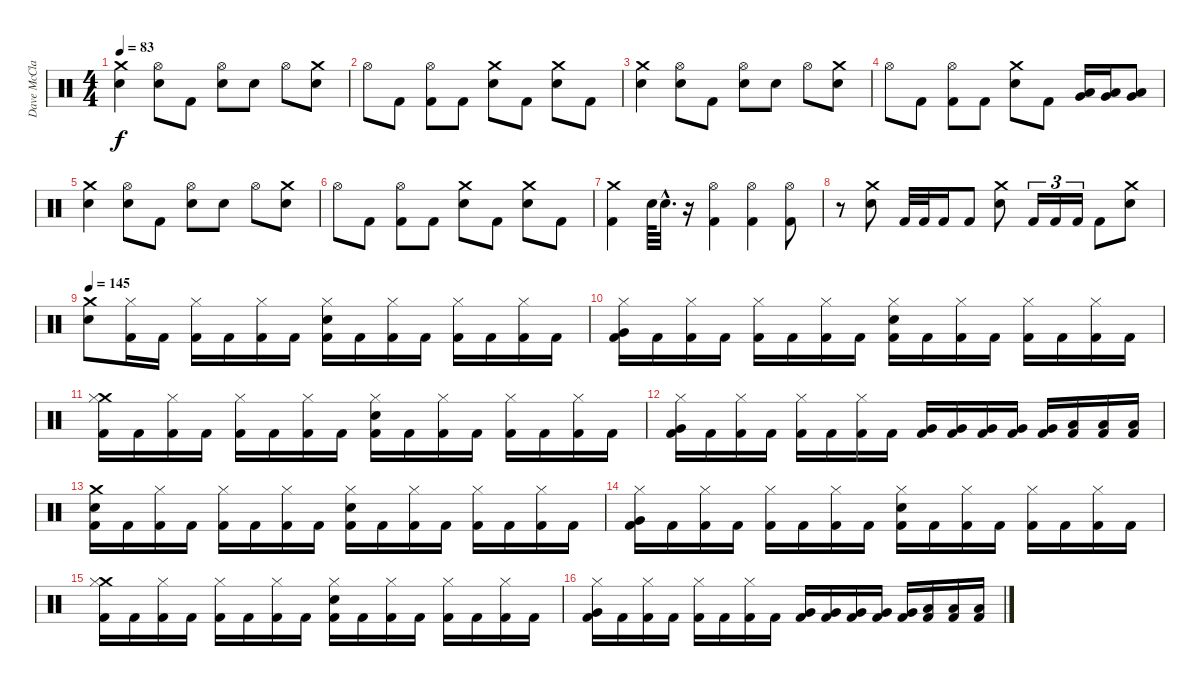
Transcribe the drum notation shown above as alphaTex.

\track ("Dave McClain" "Dave McCla") {instrument percussion}
\staff {score}
\articulation defaults
\ts (4 4)
\tempo 83
\clef neutral
\ks c
("Crash medium (hit)" "Snare (hit) 2").4{dy f} ("Hi-Hat (open)" "Snare (hit) 2").8 "Kick (hit) 2".8 ("Hi-Hat (open)" "Snare (hit) 2").8 "Snare (hit) 2".8 "Hi-Hat (open)".8 ("Crash medium (hit)" "Snare (hit) 2").8 |
"Hi-Hat (open)".8 "Kick (hit) 2".8 ("Hi-Hat (open)" "Kick (hit) 2").8 "Kick (hit) 2".8 ("Crash medium (hit)" "Snare (hit) 2").8 "Kick (hit) 2".8 ("Crash medium (hit)" "Snare (hit) 2").8 "Kick (hit) 2".8 |
("Crash medium (hit)" "Snare (hit) 2").4 ("Hi-Hat (open)" "Snare (hit) 2").8 "Kick (hit) 2".8 ("Hi-Hat (open)" "Snare (hit) 2").8 "Snare (hit) 2".8 "Hi-Hat (open)".8 ("Crash medium (hit)" "Snare (hit) 2").8 |
"Hi-Hat (open)".8 "Kick (hit) 2".8 ("Hi-Hat (open)" "Kick (hit) 2").8 "Kick (hit) 2".8 ("Crash medium (hit)" "Snare (hit) 2").8 "Kick (hit) 2".8 ("Very Low Tom (hit)" "Low Floor Tom (hit)").16 ("Very Low Tom (hit)" "Low Floor Tom (hit)").16 ("Very Low Tom (hit)" "Low Floor Tom (hit)").8 |
("Crash medium (hit)" "Snare (hit) 2").4 ("Hi-Hat (open)" "Snare (hit) 2").8 "Kick (hit) 2".8 ("Hi-Hat (open)" "Snare (hit) 2").8 "Snare (hit) 2".8 "Hi-Hat (open)".8 ("Crash medium (hit)" "Snare (hit) 2").8 |
"Hi-Hat (open)".8 "Kick (hit) 2".8 ("Hi-Hat (open)" "Kick (hit) 2").8 "Kick (hit) 2".8 ("Crash medium (hit)" "Snare (hit) 2").8 "Kick (hit) 2".8 ("Crash medium (hit)" "Snare (hit) 2").8 "Kick (hit) 2".8 |
("Crash medium (hit)" "Kick (hit) 2").4 "Snare (hit) 2".64 "Snare (hit) 2"{hac}.32{d} r.16 ("Hi-Hat (open)" "Kick (hit) 2").4 ("Hi-Hat (open)" "Kick (hit) 2").4 ("Hi-Hat (open)" "Kick (hit) 2").8 |
r.8 ("Crash medium (hit)" "Snare (hit) 2").8 "Kick (hit) 2".32 "Kick (hit) 2".32 "Kick (hit) 2".16 "Kick (hit) 2".8 ("Crash medium (hit)" "Snare (hit) 2").8 "Kick (hit) 2".16{tu (3 2)} "Kick (hit) 2".16{tu (3 2)} "Kick (hit) 2".16{tu (3 2)} "Kick (hit) 2".8 ("Crash medium (hit)" "Snare (hit) 2").8 |
\tempo 145
("Crash medium (hit)" "Snare (hit) 2").8 ("Hi-Hat (closed)" "Kick (hit) 2").16 "Kick (hit) 2".16 ("Hi-Hat (closed)" "Kick (hit) 2").16 "Kick (hit) 2".16 ("Hi-Hat (closed)" "Kick (hit) 2").16 "Kick (hit) 2".16 ("Hi-Hat (closed)" "Snare (hit) 2" "Kick (hit) 2").16 "Kick (hit) 2".16 ("Hi-Hat (closed)" "Kick (hit) 2").16 "Kick (hit) 2".16 ("Hi-Hat (closed)" "Kick (hit) 2").16 "Kick (hit) 2".16 ("Hi-Hat (closed)" "Kick (hit) 2").16 "Kick (hit) 2".16 |
("Hi-Hat (closed)" "Very Low Tom (hit)" "Kick (hit) 2").16 "Kick (hit) 2".16 ("Hi-Hat (closed)" "Kick (hit) 2").16 "Kick (hit) 2".16 ("Hi-Hat (closed)" "Kick (hit) 2").16 "Kick (hit) 2".16 ("Hi-Hat (closed)" "Kick (hit) 2").16 "Kick (hit) 2".16 ("Hi-Hat (closed)" "Snare (hit) 2" "Kick (hit) 2").16 "Kick (hit) 2".16 ("Hi-Hat (closed)" "Kick (hit) 2").16 "Kick (hit) 2".16 ("Hi-Hat (closed)" "Kick (hit) 2").16 "Kick (hit) 2".16 ("Hi-Hat (closed)" "Kick (hit) 2").16 "Kick (hit) 2".16 |
("Crash medium (hit)" "Hi-Hat (closed)" "Kick (hit) 2").16 "Kick (hit) 2".16 ("Hi-Hat (closed)" "Kick (hit) 2").16 "Kick (hit) 2".16 ("Hi-Hat (closed)" "Kick (hit) 2").16 "Kick (hit) 2".16 ("Hi-Hat (closed)" "Kick (hit) 2").16 "Kick (hit) 2".16 ("Hi-Hat (closed)" "Snare (hit) 2" "Kick (hit) 2").16 "Kick (hit) 2".16 ("Hi-Hat (closed)" "Kick (hit) 2").16 "Kick (hit) 2".16 ("Hi-Hat (closed)" "Kick (hit) 2").16 "Kick (hit) 2".16 ("Hi-Hat (closed)" "Kick (hit) 2").16 "Kick (hit) 2".16 |
("Hi-Hat (closed)" "Very Low Tom (hit)" "Kick (hit) 2").16 "Kick (hit) 2".16 ("Hi-Hat (closed)" "Kick (hit) 2").16 "Kick (hit) 2".16 ("Hi-Hat (closed)" "Kick (hit) 2").16 "Kick (hit) 2".16 ("Hi-Hat (closed)" "Kick (hit) 2").16 "Kick (hit) 2".16 ("Very Low Tom (hit)" "Kick (hit) 2").16 ("Very Low Tom (hit)" "Kick (hit) 2").16 ("Very Low Tom (hit)" "Kick (hit) 2").16 ("Very Low Tom (hit)" "Kick (hit) 2").16 ("Very Low Tom (hit)" "Kick (hit) 2").16 ("Low Floor Tom (hit)" "Kick (hit) 2").16 ("Low Floor Tom (hit)" "Kick (hit) 2").16 ("Low Floor Tom (hit)" "Kick (hit) 2").16 |
("Crash medium (hit)" "Snare (hit) 2" "Kick (hit) 2").16 "Kick (hit) 2".16 ("Hi-Hat (closed)" "Kick (hit) 2").16 "Kick (hit) 2".16 ("Hi-Hat (closed)" "Kick (hit) 2").16 "Kick (hit) 2".16 ("Hi-Hat (closed)" "Kick (hit) 2").16 "Kick (hit) 2".16 ("Hi-Hat (closed)" "Snare (hit) 2" "Kick (hit) 2").16 "Kick (hit) 2".16 ("Hi-Hat (closed)" "Kick (hit) 2").16 "Kick (hit) 2".16 ("Hi-Hat (closed)" "Kick (hit) 2").16 "Kick (hit) 2".16 ("Hi-Hat (closed)" "Kick (hit) 2").16 "Kick (hit) 2".16 |
("Hi-Hat (closed)" "Very Low Tom (hit)" "Kick (hit) 2").16 "Kick (hit) 2".16 ("Hi-Hat (closed)" "Kick (hit) 2").16 "Kick (hit) 2".16 ("Hi-Hat (closed)" "Kick (hit) 2").16 "Kick (hit) 2".16 ("Hi-Hat (closed)" "Kick (hit) 2").16 "Kick (hit) 2".16 ("Hi-Hat (closed)" "Snare (hit) 2" "Kick (hit) 2").16 "Kick (hit) 2".16 ("Hi-Hat (closed)" "Kick (hit) 2").16 "Kick (hit) 2".16 ("Hi-Hat (closed)" "Kick (hit) 2").16 "Kick (hit) 2".16 ("Hi-Hat (closed)" "Kick (hit) 2").16 "Kick (hit) 2".16 |
("Crash medium (hit)" "Hi-Hat (closed)" "Kick (hit) 2").16 "Kick (hit) 2".16 ("Hi-Hat (closed)" "Kick (hit) 2").16 "Kick (hit) 2".16 ("Hi-Hat (closed)" "Kick (hit) 2").16 "Kick (hit) 2".16 ("Hi-Hat (closed)" "Kick (hit) 2").16 "Kick (hit) 2".16 ("Hi-Hat (closed)" "Snare (hit) 2" "Kick (hit) 2").16 "Kick (hit) 2".16 ("Hi-Hat (closed)" "Kick (hit) 2").16 "Kick (hit) 2".16 ("Hi-Hat (closed)" "Kick (hit) 2").16 "Kick (hit) 2".16 ("Hi-Hat (closed)" "Kick (hit) 2").16 "Kick (hit) 2".16 |
("Hi-Hat (closed)" "Very Low Tom (hit)" "Kick (hit) 2").16 "Kick (hit) 2".16 ("Hi-Hat (closed)" "Kick (hit) 2").16 "Kick (hit) 2".16 ("Hi-Hat (closed)" "Kick (hit) 2").16 "Kick (hit) 2".16 ("Hi-Hat (closed)" "Kick (hit) 2").16 "Kick (hit) 2".16 ("Very Low Tom (hit)" "Kick (hit) 2").16 ("Very Low Tom (hit)" "Kick (hit) 2").16 ("Very Low Tom (hit)" "Kick (hit) 2").16 ("Very Low Tom (hit)" "Kick (hit) 2").16 ("Very Low Tom (hit)" "Kick (hit) 2").16 ("Low Floor Tom (hit)" "Kick (hit) 2").16 ("Low Floor Tom (hit)" "Kick (hit) 2").16 ("Low Floor Tom (hit)" "Kick (hit) 2").16
